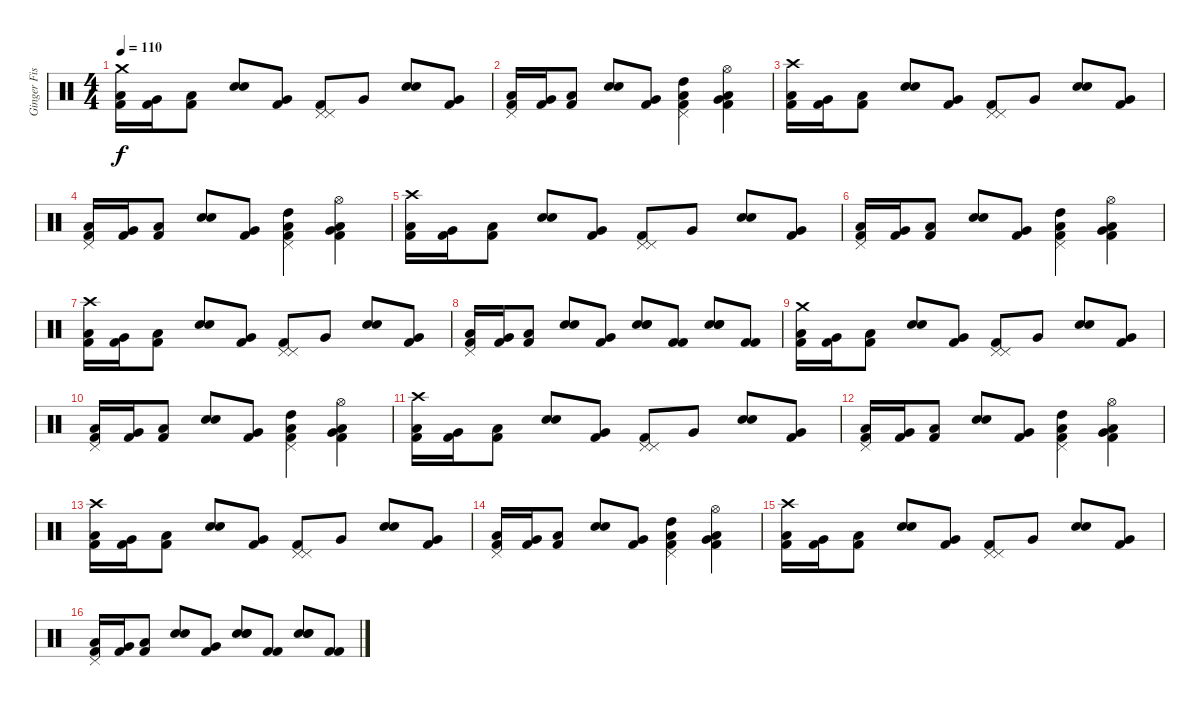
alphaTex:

\track ("Ginger Fish" "Ginger Fis") {instrument percussion}
\staff {score}
\articulation defaults
\ts (4 4)
\tempo 110
\clef neutral
\ks c
("Crash medium (hit)" "Low Tom (hit)" "Kick (hit) 2").16{dy f} ("Very Low Tom (hit)" "Kick (hit) 2").16 ("Low Tom (hit)" "Kick (hit) 2").8 ("Electric Snare (hit)" "Electric Snare (hit)").8 ("Very Low Tom (hit)" "Kick (hit) 2").8 ("Pedal Hi-Hat (hit)" "Pedal Hi-Hat (hit)" "Kick (hit) 2").8 "Very Low Tom (hit)".8 ("Electric Snare (hit)" "Electric Snare (hit)").8 ("Very Low Tom (hit)" "Kick (hit) 2").8 |
("Pedal Hi-Hat (hit)" "Low Tom (hit)" "Kick (hit) 2").16 ("Very Low Tom (hit)" "Kick (hit) 2").16 ("Low Tom (hit)" "Kick (hit) 2").8 ("Electric Snare (hit)" "Electric Snare (hit)").8 ("Very Low Tom (hit)" "Kick (hit) 2").8 ("Pedal Hi-Hat (hit)" "High Tom (hit)" "Low Tom (hit)" "Kick (hit) 2").4 ("Hi-Hat (open)" "Very Low Tom (hit)" "Low Tom (hit)" "Kick (hit) 2").4 |
("Crash high (hit)" "Low Tom (hit)" "Kick (hit) 2").16 ("Very Low Tom (hit)" "Kick (hit) 2").16 ("Low Tom (hit)" "Kick (hit) 2").8 ("Electric Snare (hit)" "Electric Snare (hit)").8 ("Very Low Tom (hit)" "Kick (hit) 2").8 ("Pedal Hi-Hat (hit)" "Pedal Hi-Hat (hit)" "Kick (hit) 2").8 "Very Low Tom (hit)".8 ("Electric Snare (hit)" "Electric Snare (hit)").8 ("Very Low Tom (hit)" "Kick (hit) 2").8 |
("Pedal Hi-Hat (hit)" "Low Tom (hit)" "Kick (hit) 2").16 ("Very Low Tom (hit)" "Kick (hit) 2").16 ("Low Tom (hit)" "Kick (hit) 2").8 ("Electric Snare (hit)" "Electric Snare (hit)").8 ("Very Low Tom (hit)" "Kick (hit) 2").8 ("Pedal Hi-Hat (hit)" "High Tom (hit)" "Low Tom (hit)" "Kick (hit) 2").4 ("Hi-Hat (open)" "Very Low Tom (hit)" "Low Tom (hit)" "Kick (hit) 2").4 |
("Crash high (hit)" "Low Tom (hit)" "Kick (hit) 2").16 ("Very Low Tom (hit)" "Kick (hit) 2").16 ("Low Tom (hit)" "Kick (hit) 2").8 ("Electric Snare (hit)" "Electric Snare (hit)").8 ("Very Low Tom (hit)" "Kick (hit) 2").8 ("Pedal Hi-Hat (hit)" "Pedal Hi-Hat (hit)" "Kick (hit) 2").8 "Very Low Tom (hit)".8 ("Electric Snare (hit)" "Electric Snare (hit)").8 ("Very Low Tom (hit)" "Kick (hit) 2").8 |
("Pedal Hi-Hat (hit)" "Low Tom (hit)" "Kick (hit) 2").16 ("Very Low Tom (hit)" "Kick (hit) 2").16 ("Low Tom (hit)" "Kick (hit) 2").8 ("Electric Snare (hit)" "Electric Snare (hit)").8 ("Very Low Tom (hit)" "Kick (hit) 2").8 ("Pedal Hi-Hat (hit)" "High Tom (hit)" "Low Tom (hit)" "Kick (hit) 2").4 ("Hi-Hat (open)" "Very Low Tom (hit)" "Low Tom (hit)" "Kick (hit) 2").4 |
("Crash high (hit)" "Low Tom (hit)" "Kick (hit) 2").16 ("Very Low Tom (hit)" "Kick (hit) 2").16 ("Low Tom (hit)" "Kick (hit) 2").8 ("Electric Snare (hit)" "Electric Snare (hit)").8 ("Very Low Tom (hit)" "Kick (hit) 2").8 ("Pedal Hi-Hat (hit)" "Pedal Hi-Hat (hit)" "Kick (hit) 2").8 "Very Low Tom (hit)".8 ("Electric Snare (hit)" "Electric Snare (hit)").8 ("Very Low Tom (hit)" "Kick (hit) 2").8 |
("Pedal Hi-Hat (hit)" "Low Tom (hit)" "Kick (hit) 2").16 ("Very Low Tom (hit)" "Kick (hit) 2").16 ("Low Tom (hit)" "Kick (hit) 2").8 ("Electric Snare (hit)" "Electric Snare (hit)").8 ("Very Low Tom (hit)" "Kick (hit) 2").8 ("Electric Snare (hit)" "Electric Snare (hit)" "Electric Snare (hit)").8 ("Kick (hit) 2" "Kick (hit) 2").8 ("Electric Snare (hit)" "Electric Snare (hit)" "Electric Snare (hit)").8 ("Kick (hit) 2" "Kick (hit) 2").8 |
("Crash medium (hit)" "Low Tom (hit)" "Kick (hit) 2").16 ("Very Low Tom (hit)" "Kick (hit) 2").16 ("Low Tom (hit)" "Kick (hit) 2").8 ("Electric Snare (hit)" "Electric Snare (hit)").8 ("Very Low Tom (hit)" "Kick (hit) 2").8 ("Pedal Hi-Hat (hit)" "Pedal Hi-Hat (hit)" "Kick (hit) 2").8 "Very Low Tom (hit)".8 ("Electric Snare (hit)" "Electric Snare (hit)").8 ("Very Low Tom (hit)" "Kick (hit) 2").8 |
("Pedal Hi-Hat (hit)" "Low Tom (hit)" "Kick (hit) 2").16 ("Very Low Tom (hit)" "Kick (hit) 2").16 ("Low Tom (hit)" "Kick (hit) 2").8 ("Electric Snare (hit)" "Electric Snare (hit)").8 ("Very Low Tom (hit)" "Kick (hit) 2").8 ("Pedal Hi-Hat (hit)" "High Tom (hit)" "Low Tom (hit)" "Kick (hit) 2").4 ("Hi-Hat (open)" "Very Low Tom (hit)" "Low Tom (hit)" "Kick (hit) 2").4 |
("Crash high (hit)" "Low Tom (hit)" "Kick (hit) 2").16 ("Very Low Tom (hit)" "Kick (hit) 2").16 ("Low Tom (hit)" "Kick (hit) 2").8 ("Electric Snare (hit)" "Electric Snare (hit)").8 ("Very Low Tom (hit)" "Kick (hit) 2").8 ("Pedal Hi-Hat (hit)" "Pedal Hi-Hat (hit)" "Kick (hit) 2").8 "Very Low Tom (hit)".8 ("Electric Snare (hit)" "Electric Snare (hit)").8 ("Very Low Tom (hit)" "Kick (hit) 2").8 |
("Pedal Hi-Hat (hit)" "Low Tom (hit)" "Kick (hit) 2").16 ("Very Low Tom (hit)" "Kick (hit) 2").16 ("Low Tom (hit)" "Kick (hit) 2").8 ("Electric Snare (hit)" "Electric Snare (hit)").8 ("Very Low Tom (hit)" "Kick (hit) 2").8 ("Pedal Hi-Hat (hit)" "High Tom (hit)" "Low Tom (hit)" "Kick (hit) 2").4 ("Hi-Hat (open)" "Very Low Tom (hit)" "Low Tom (hit)" "Kick (hit) 2").4 |
("Crash high (hit)" "Low Tom (hit)" "Kick (hit) 2").16 ("Very Low Tom (hit)" "Kick (hit) 2").16 ("Low Tom (hit)" "Kick (hit) 2").8 ("Electric Snare (hit)" "Electric Snare (hit)").8 ("Very Low Tom (hit)" "Kick (hit) 2").8 ("Pedal Hi-Hat (hit)" "Pedal Hi-Hat (hit)" "Kick (hit) 2").8 "Very Low Tom (hit)".8 ("Electric Snare (hit)" "Electric Snare (hit)").8 ("Very Low Tom (hit)" "Kick (hit) 2").8 |
("Pedal Hi-Hat (hit)" "Low Tom (hit)" "Kick (hit) 2").16 ("Very Low Tom (hit)" "Kick (hit) 2").16 ("Low Tom (hit)" "Kick (hit) 2").8 ("Electric Snare (hit)" "Electric Snare (hit)").8 ("Very Low Tom (hit)" "Kick (hit) 2").8 ("Pedal Hi-Hat (hit)" "High Tom (hit)" "Low Tom (hit)" "Kick (hit) 2").4 ("Hi-Hat (open)" "Very Low Tom (hit)" "Low Tom (hit)" "Kick (hit) 2").4 |
("Crash high (hit)" "Low Tom (hit)" "Kick (hit) 2").16 ("Very Low Tom (hit)" "Kick (hit) 2").16 ("Low Tom (hit)" "Kick (hit) 2").8 ("Electric Snare (hit)" "Electric Snare (hit)").8 ("Very Low Tom (hit)" "Kick (hit) 2").8 ("Pedal Hi-Hat (hit)" "Pedal Hi-Hat (hit)" "Kick (hit) 2").8 "Very Low Tom (hit)".8 ("Electric Snare (hit)" "Electric Snare (hit)").8 ("Very Low Tom (hit)" "Kick (hit) 2").8 |
("Pedal Hi-Hat (hit)" "Low Tom (hit)" "Kick (hit) 2").16 ("Very Low Tom (hit)" "Kick (hit) 2").16 ("Low Tom (hit)" "Kick (hit) 2").8 ("Electric Snare (hit)" "Electric Snare (hit)").8 ("Very Low Tom (hit)" "Kick (hit) 2").8 ("Electric Snare (hit)" "Electric Snare (hit)" "Electric Snare (hit)").8 ("Kick (hit) 2" "Kick (hit) 2").8 ("Electric Snare (hit)" "Electric Snare (hit)" "Electric Snare (hit)").8 ("Kick (hit) 2" "Kick (hit) 2").8
